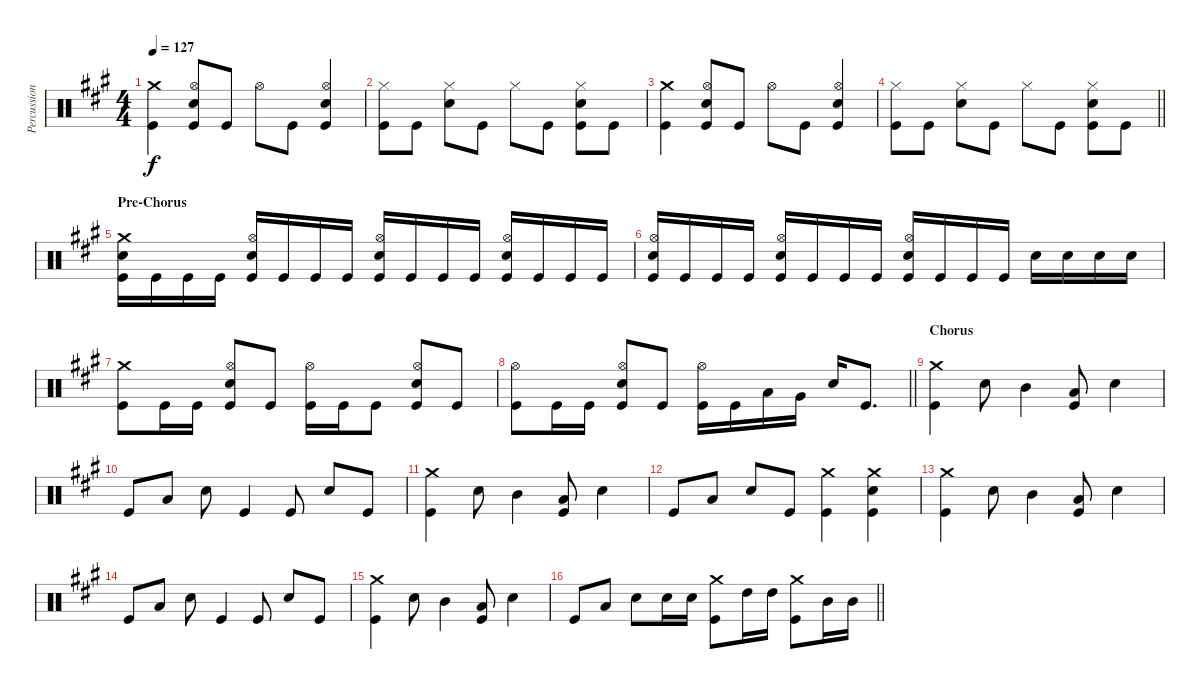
\track ("Percussion" "Percussion") {instrument percussion}
\staff {score}
\articulation defaults
\ts (4 4)
\tempo 127
\clef neutral
\ks a
("Crash medium (hit)" "Kick (hit)").4{dy f} ("Hi-Hat (open)" "Electric Snare (hit)" "Kick (hit)").8 "Kick (hit)".8 "Hi-Hat (open)".8 "Kick (hit)".8 ("Hi-Hat (open)" "Electric Snare (hit)" "Kick (hit)").4 |
("Hi-Hat (closed)" "Kick (hit)").8 "Kick (hit)".8 ("Hi-Hat (closed)" "Electric Snare (hit)").8 "Kick (hit)".8 "Hi-Hat (closed)".8 "Kick (hit)".8 ("Hi-Hat (closed)" "Electric Snare (hit)" "Kick (hit)").8 "Kick (hit)".8 |
("Crash medium (hit)" "Kick (hit)").4 ("Hi-Hat (open)" "Electric Snare (hit)" "Kick (hit)").8 "Kick (hit)".8 "Hi-Hat (open)".8 "Kick (hit)".8 ("Hi-Hat (open)" "Electric Snare (hit)" "Kick (hit)").4 |
\barLineRight lightlight
("Hi-Hat (closed)" "Kick (hit)").8 "Kick (hit)".8 ("Hi-Hat (closed)" "Electric Snare (hit)").8 "Kick (hit)".8 "Hi-Hat (closed)".8 "Kick (hit)".8 ("Hi-Hat (closed)" "Electric Snare (hit)" "Kick (hit)").8 "Kick (hit)".8 |
\section ("" "Pre-Chorus")
("Crash medium (hit)" "Electric Snare (hit)" "Kick (hit)").16 "Kick (hit)".16 "Kick (hit)".16 "Kick (hit)".16 ("Hi-Hat (open)" "Electric Snare (hit)" "Kick (hit)").16 "Kick (hit)".16 "Kick (hit)".16 "Kick (hit)".16 ("Hi-Hat (open)" "Electric Snare (hit)" "Kick (hit)").16 "Kick (hit)".16 "Kick (hit)".16 "Kick (hit)".16 ("Hi-Hat (open)" "Electric Snare (hit)" "Kick (hit)").16 "Kick (hit)".16 "Kick (hit)".16 "Kick (hit)".16 |
("Hi-Hat (open)" "Electric Snare (hit)" "Kick (hit)").16 "Kick (hit)".16 "Kick (hit)".16 "Kick (hit)".16 ("Hi-Hat (open)" "Electric Snare (hit)" "Kick (hit)").16 "Kick (hit)".16 "Kick (hit)".16 "Kick (hit)".16 ("Hi-Hat (open)" "Electric Snare (hit)" "Kick (hit)").16 "Kick (hit)".16 "Kick (hit)".16 "Kick (hit)".16 "Electric Snare (hit)".16 "Electric Snare (hit)".16 "Electric Snare (hit)".16 "Electric Snare (hit)".16 |
("Crash medium (hit)" "Kick (hit)").8 "Kick (hit)".16 "Kick (hit)".16 ("Hi-Hat (open)" "Electric Snare (hit)" "Kick (hit)").8 "Kick (hit)".8 ("Hi-Hat (open)" "Kick (hit)").16 "Kick (hit)".16 "Kick (hit)".8 ("Hi-Hat (open)" "Electric Snare (hit)" "Kick (hit)").8 "Kick (hit)".8 |
\barLineRight lightlight
("Hi-Hat (open)" "Kick (hit)").8 "Kick (hit)".16 "Kick (hit)".16 ("Hi-Hat (open)" "Electric Snare (hit)" "Kick (hit)").8 "Kick (hit)".8 ("Hi-Hat (open)" "Kick (hit)").16 "Kick (hit)".16 "Low Tom (hit)".16 "Very Low Tom (hit)".16 "Electric Snare (hit)".16 "Kick (hit)".8{d} |
\section ("" "Chorus")
("Crash medium (hit)" "Kick (hit)").4 "Electric Snare (hit)".8 "Mid Tom (hit)".4 ("Low Tom (hit)" "Kick (hit)").8 "Electric Snare (hit)".4 |
"Kick (hit)".8 "Low Floor Tom (hit)".8 "Electric Snare (hit)".8 "Kick (hit)".4 "Kick (hit)".8 "Electric Snare (hit)".8 "Kick (hit)".8 |
("Crash medium (hit)" "Kick (hit)").4 "Electric Snare (hit)".8 "Mid Tom (hit)".4 ("Low Tom (hit)" "Kick (hit)").8 "Electric Snare (hit)".4 |
"Kick (hit)".8 "Low Floor Tom (hit)".8 "Electric Snare (hit)".8 "Kick (hit)".8 ("Crash medium (hit)" "Kick (hit)").4 ("Crash medium (hit)" "Electric Snare (hit)" "Kick (hit)").4 |
("Crash medium (hit)" "Kick (hit)").4 "Electric Snare (hit)".8 "Mid Tom (hit)".4 ("Low Tom (hit)" "Kick (hit)").8 "Electric Snare (hit)".4 |
"Kick (hit)".8 "Low Floor Tom (hit)".8 "Electric Snare (hit)".8 "Kick (hit)".4 "Kick (hit)".8 "Electric Snare (hit)".8 "Kick (hit)".8 |
("Crash medium (hit)" "Kick (hit)").4 "Electric Snare (hit)".8 "Mid Tom (hit)".4 ("Low Tom (hit)" "Kick (hit)").8 "Electric Snare (hit)".4 |
\barLineRight lightlight "Kick (hit)".8 "Low Floor Tom (hit)".8 "Electric Snare (hit)".8 "Electric Snare (hit)".16 "Electric Snare (hit)".16
("Crash medium (hit)" "Kick (hit)").8 "High Tom (hit)".16 "High Tom (hit)".16 ("Crash medium (hit)" "Kick (hit)").8 "Mid Tom (hit)".16 "Mid Tom (hit)".16
